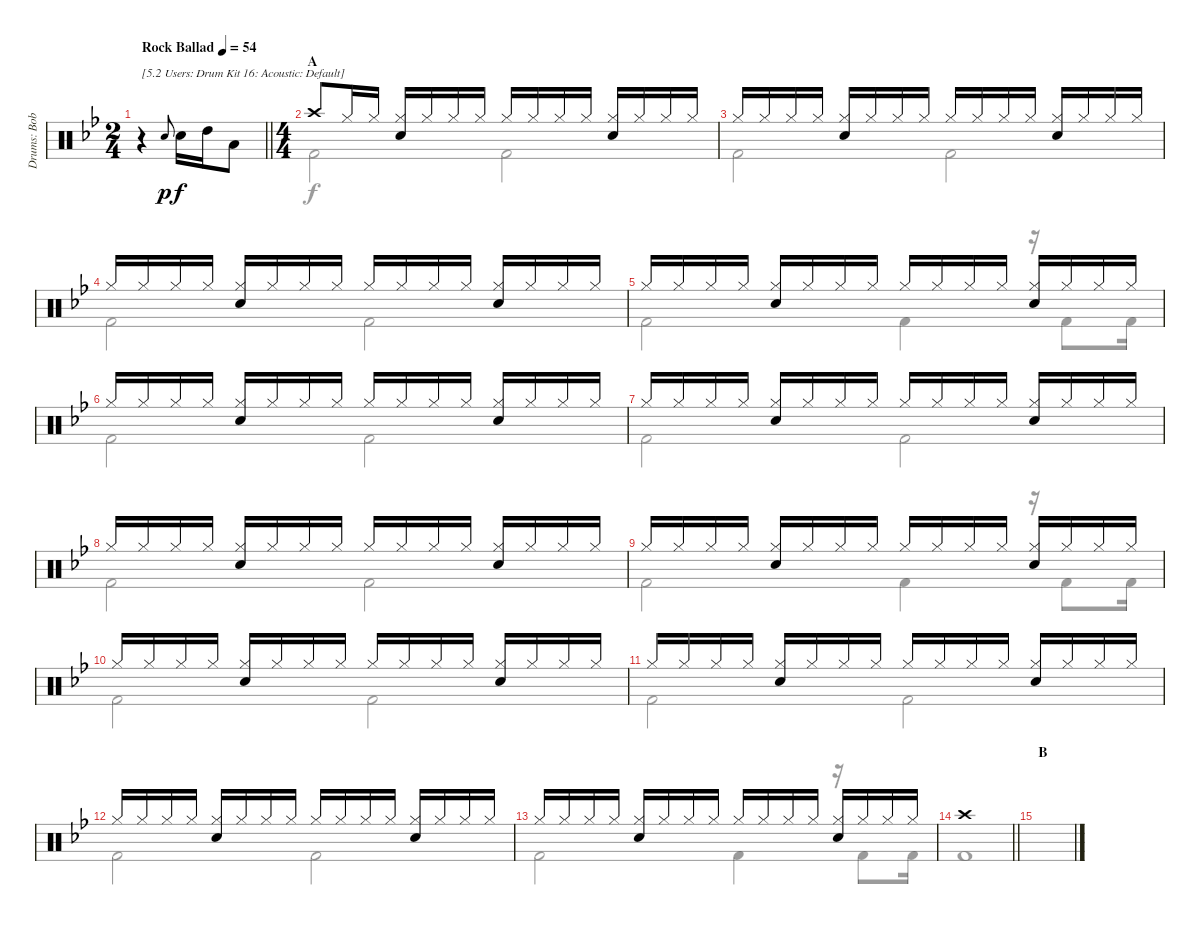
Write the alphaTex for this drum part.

\track ("Drums: Bobby" "Drums: Bob") {instrument percussion}
\staff {score}
\articulation defaults
\voice
\ts (2 4)
\tempo (54 "Rock Ballad")
\clef neutral
\barLineRight lightlight
\ks bb
r.4{txt "[5.2 Users: Drum Kit 16: Acoustic: Default]" dy p} "Snare (hit) 2"{h}.8{gr onbeat} "Electric Snare (hit)".16{dy f} "High Tom (hit)".16 "Low Tom (hit)".8 |
\ts (4 4)
\section ("" "A")
"Crash high (hit)".8 "Hi-Hat (closed)".16 "Hi-Hat (closed)".16 ("Hi-Hat (closed)" "Snare (hit) 2").16 "Hi-Hat (closed)".16 "Hi-Hat (closed)".16 "Hi-Hat (closed)".16 "Hi-Hat (closed)".16 "Hi-Hat (closed)".16 "Hi-Hat (closed)".16 "Hi-Hat (closed)".16 ("Hi-Hat (closed)" "Snare (hit) 2").16 "Hi-Hat (closed)".16 "Hi-Hat (closed)".16 "Hi-Hat (closed)".16 |
"Hi-Hat (closed)".16 "Hi-Hat (closed)".16 "Hi-Hat (closed)".16 "Hi-Hat (closed)".16 ("Hi-Hat (closed)" "Snare (hit) 2").16 "Hi-Hat (closed)".16 "Hi-Hat (closed)".16 "Hi-Hat (closed)".16 "Hi-Hat (closed)".16 "Hi-Hat (closed)".16 "Hi-Hat (closed)".16 "Hi-Hat (closed)".16 ("Hi-Hat (closed)" "Snare (hit) 2").16 "Hi-Hat (closed)".16 "Hi-Hat (closed)".16 "Hi-Hat (closed)".16 |
"Hi-Hat (closed)".16 "Hi-Hat (closed)".16 "Hi-Hat (closed)".16 "Hi-Hat (closed)".16 ("Hi-Hat (closed)" "Snare (hit) 2").16 "Hi-Hat (closed)".16 "Hi-Hat (closed)".16 "Hi-Hat (closed)".16 "Hi-Hat (closed)".16 "Hi-Hat (closed)".16 "Hi-Hat (closed)".16 "Hi-Hat (closed)".16 ("Hi-Hat (closed)" "Snare (hit) 2").16 "Hi-Hat (closed)".16 "Hi-Hat (closed)".16 "Hi-Hat (closed)".16 |
"Hi-Hat (closed)".16 "Hi-Hat (closed)".16 "Hi-Hat (closed)".16 "Hi-Hat (closed)".16 ("Hi-Hat (closed)" "Snare (hit) 2").16 "Hi-Hat (closed)".16 "Hi-Hat (closed)".16 "Hi-Hat (closed)".16 "Hi-Hat (closed)".16 "Hi-Hat (closed)".16 "Hi-Hat (closed)".16 "Hi-Hat (closed)".16 ("Hi-Hat (closed)" "Snare (hit) 2").16 "Hi-Hat (closed)".16 "Hi-Hat (closed)".16 "Hi-Hat (closed)".16 |
"Hi-Hat (closed)".16 "Hi-Hat (closed)".16 "Hi-Hat (closed)".16 "Hi-Hat (closed)".16 ("Hi-Hat (closed)" "Snare (hit) 2").16 "Hi-Hat (closed)".16 "Hi-Hat (closed)".16 "Hi-Hat (closed)".16 "Hi-Hat (closed)".16 "Hi-Hat (closed)".16 "Hi-Hat (closed)".16 "Hi-Hat (closed)".16 ("Hi-Hat (closed)" "Snare (hit) 2").16 "Hi-Hat (closed)".16 "Hi-Hat (closed)".16 "Hi-Hat (closed)".16 |
"Hi-Hat (closed)".16 "Hi-Hat (closed)".16 "Hi-Hat (closed)".16 "Hi-Hat (closed)".16 ("Hi-Hat (closed)" "Snare (hit) 2").16 "Hi-Hat (closed)".16 "Hi-Hat (closed)".16 "Hi-Hat (closed)".16 "Hi-Hat (closed)".16 "Hi-Hat (closed)".16 "Hi-Hat (closed)".16 "Hi-Hat (closed)".16 ("Hi-Hat (closed)" "Snare (hit) 2").16 "Hi-Hat (closed)".16 "Hi-Hat (closed)".16 "Hi-Hat (closed)".16 |
"Hi-Hat (closed)".16 "Hi-Hat (closed)".16 "Hi-Hat (closed)".16 "Hi-Hat (closed)".16 ("Hi-Hat (closed)" "Snare (hit) 2").16 "Hi-Hat (closed)".16 "Hi-Hat (closed)".16 "Hi-Hat (closed)".16 "Hi-Hat (closed)".16 "Hi-Hat (closed)".16 "Hi-Hat (closed)".16 "Hi-Hat (closed)".16 ("Hi-Hat (closed)" "Snare (hit) 2").16 "Hi-Hat (closed)".16 "Hi-Hat (closed)".16 "Hi-Hat (closed)".16 |
"Hi-Hat (closed)".16 "Hi-Hat (closed)".16 "Hi-Hat (closed)".16 "Hi-Hat (closed)".16 ("Hi-Hat (closed)" "Snare (hit) 2").16 "Hi-Hat (closed)".16 "Hi-Hat (closed)".16 "Hi-Hat (closed)".16 "Hi-Hat (closed)".16 "Hi-Hat (closed)".16 "Hi-Hat (closed)".16 "Hi-Hat (closed)".16 ("Hi-Hat (closed)" "Snare (hit) 2").16 "Hi-Hat (closed)".16 "Hi-Hat (closed)".16 "Hi-Hat (closed)".16 |
"Hi-Hat (closed)".16 "Hi-Hat (closed)".16 "Hi-Hat (closed)".16 "Hi-Hat (closed)".16 ("Hi-Hat (closed)" "Snare (hit) 2").16 "Hi-Hat (closed)".16 "Hi-Hat (closed)".16 "Hi-Hat (closed)".16 "Hi-Hat (closed)".16 "Hi-Hat (closed)".16 "Hi-Hat (closed)".16 "Hi-Hat (closed)".16 ("Hi-Hat (closed)" "Snare (hit) 2").16 "Hi-Hat (closed)".16 "Hi-Hat (closed)".16 "Hi-Hat (closed)".16 |
"Hi-Hat (closed)".16 "Hi-Hat (closed)".16 "Hi-Hat (closed)".16 "Hi-Hat (closed)".16 ("Hi-Hat (closed)" "Snare (hit) 2").16 "Hi-Hat (closed)".16 "Hi-Hat (closed)".16 "Hi-Hat (closed)".16 "Hi-Hat (closed)".16 "Hi-Hat (closed)".16 "Hi-Hat (closed)".16 "Hi-Hat (closed)".16 ("Hi-Hat (closed)" "Snare (hit) 2").16 "Hi-Hat (closed)".16 "Hi-Hat (closed)".16 "Hi-Hat (closed)".16 |
"Hi-Hat (closed)".16 "Hi-Hat (closed)".16 "Hi-Hat (closed)".16 "Hi-Hat (closed)".16 ("Hi-Hat (closed)" "Snare (hit) 2").16 "Hi-Hat (closed)".16 "Hi-Hat (closed)".16 "Hi-Hat (closed)".16 "Hi-Hat (closed)".16 "Hi-Hat (closed)".16 "Hi-Hat (closed)".16 "Hi-Hat (closed)".16 ("Hi-Hat (closed)" "Snare (hit) 2").16 "Hi-Hat (closed)".16 "Hi-Hat (closed)".16 "Hi-Hat (closed)".16 |
"Hi-Hat (closed)".16 "Hi-Hat (closed)".16 "Hi-Hat (closed)".16 "Hi-Hat (closed)".16 ("Hi-Hat (closed)" "Snare (hit) 2").16 "Hi-Hat (closed)".16 "Hi-Hat (closed)".16 "Hi-Hat (closed)".16 "Hi-Hat (closed)".16 "Hi-Hat (closed)".16 "Hi-Hat (closed)".16 "Hi-Hat (closed)".16 ("Hi-Hat (closed)" "Snare (hit) 2").16 "Hi-Hat (closed)".16 "Hi-Hat (closed)".16 "Hi-Hat (closed)".16 |
\barLineRight lightlight "Crash high (hit)".1
|
\section ("" "B")
|
\voice
\clef neutral
\ottava regular
\simile none
\barLineRight lightlight
\ks bb
|
"Kick (hit) 2".2 "Kick (hit) 2".2 |
"Kick (hit) 2".2 "Kick (hit) 2".2 |
"Kick (hit) 2".2 "Kick (hit) 2".2 |
"Kick (hit) 2".2 "Kick (hit) 2".4 r.16 "Kick (hit) 2".8 "Kick (hit) 2".16 |
"Kick (hit) 2".2 "Kick (hit) 2".2 |
"Kick (hit) 2".2 "Kick (hit) 2".2 |
"Kick (hit) 2".2 "Kick (hit) 2".2 |
"Kick (hit) 2".2 "Kick (hit) 2".4 r.16 "Kick (hit) 2".8 "Kick (hit) 2".16 |
"Kick (hit) 2".2 "Kick (hit) 2".2 |
"Kick (hit) 2".2 "Kick (hit) 2".2 |
"Kick (hit) 2".2 "Kick (hit) 2".2 |
"Kick (hit) 2".2 "Kick (hit) 2".4 r.16 "Kick (hit) 2".8 "Kick (hit) 2".16 |
\barLineRight lightlight "Kick (hit) 2".1
|
|
